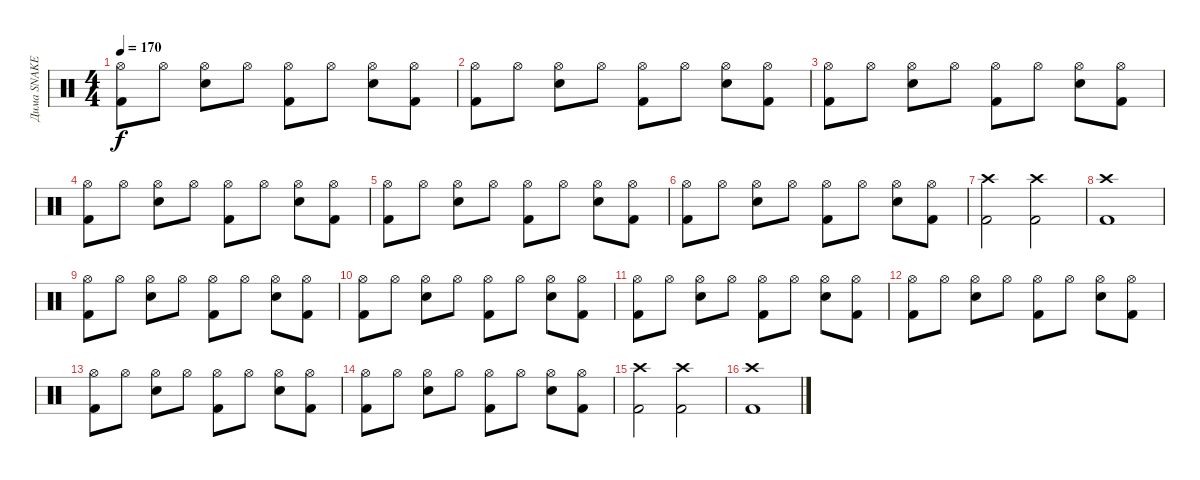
\track ("Дима SNAKE" "Дима SNAKE") {instrument percussion}
\staff {score}
\articulation defaults
\ts (4 4)
\tempo 170
\clef neutral
\ks c
("Hi-Hat (open)" "Kick (hit) 2").8{dy f} "Hi-Hat (open)".8 ("Hi-Hat (open)" "Snare (hit) 2").8 "Hi-Hat (open)".8 ("Hi-Hat (open)" "Kick (hit) 2").8 "Hi-Hat (open)".8 ("Hi-Hat (open)" "Snare (hit) 2").8 ("Hi-Hat (open)" "Kick (hit) 2").8 |
("Hi-Hat (open)" "Kick (hit) 2").8 "Hi-Hat (open)".8 ("Hi-Hat (open)" "Snare (hit) 2").8 "Hi-Hat (open)".8 ("Hi-Hat (open)" "Kick (hit) 2").8 "Hi-Hat (open)".8 ("Hi-Hat (open)" "Snare (hit) 2").8 ("Hi-Hat (open)" "Kick (hit) 2").8 |
("Hi-Hat (open)" "Kick (hit) 2").8 "Hi-Hat (open)".8 ("Hi-Hat (open)" "Snare (hit) 2").8 "Hi-Hat (open)".8 ("Hi-Hat (open)" "Kick (hit) 2").8 "Hi-Hat (open)".8 ("Hi-Hat (open)" "Snare (hit) 2").8 ("Hi-Hat (open)" "Kick (hit) 2").8 |
("Hi-Hat (open)" "Kick (hit) 2").8 "Hi-Hat (open)".8 ("Hi-Hat (open)" "Snare (hit) 2").8 "Hi-Hat (open)".8 ("Hi-Hat (open)" "Kick (hit) 2").8 "Hi-Hat (open)".8 ("Hi-Hat (open)" "Snare (hit) 2").8 ("Hi-Hat (open)" "Kick (hit) 2").8 |
("Hi-Hat (open)" "Kick (hit) 2").8 "Hi-Hat (open)".8 ("Hi-Hat (open)" "Snare (hit) 2").8 "Hi-Hat (open)".8 ("Hi-Hat (open)" "Kick (hit) 2").8 "Hi-Hat (open)".8 ("Hi-Hat (open)" "Snare (hit) 2").8 ("Hi-Hat (open)" "Kick (hit) 2").8 |
("Hi-Hat (open)" "Kick (hit) 2").8 "Hi-Hat (open)".8 ("Hi-Hat (open)" "Snare (hit) 2").8 "Hi-Hat (open)".8 ("Hi-Hat (open)" "Kick (hit) 2").8 "Hi-Hat (open)".8 ("Hi-Hat (open)" "Snare (hit) 2").8 ("Hi-Hat (open)" "Kick (hit) 2").8 |
("Crash high (hit)" "Kick (hit) 2").2 ("Crash high (hit)" "Kick (hit) 2").2 |
("Crash high (hit)" "Kick (hit) 2").1 |
("Hi-Hat (open)" "Kick (hit) 2").8 "Hi-Hat (open)".8 ("Hi-Hat (open)" "Snare (hit) 2").8 "Hi-Hat (open)".8 ("Hi-Hat (open)" "Kick (hit) 2").8 "Hi-Hat (open)".8 ("Hi-Hat (open)" "Snare (hit) 2").8 ("Hi-Hat (open)" "Kick (hit) 2").8 |
("Hi-Hat (open)" "Kick (hit) 2").8 "Hi-Hat (open)".8 ("Hi-Hat (open)" "Snare (hit) 2").8 "Hi-Hat (open)".8 ("Hi-Hat (open)" "Kick (hit) 2").8 "Hi-Hat (open)".8 ("Hi-Hat (open)" "Snare (hit) 2").8 ("Hi-Hat (open)" "Kick (hit) 2").8 |
("Hi-Hat (open)" "Kick (hit) 2").8 "Hi-Hat (open)".8 ("Hi-Hat (open)" "Snare (hit) 2").8 "Hi-Hat (open)".8 ("Hi-Hat (open)" "Kick (hit) 2").8 "Hi-Hat (open)".8 ("Hi-Hat (open)" "Snare (hit) 2").8 ("Hi-Hat (open)" "Kick (hit) 2").8 |
("Hi-Hat (open)" "Kick (hit) 2").8 "Hi-Hat (open)".8 ("Hi-Hat (open)" "Snare (hit) 2").8 "Hi-Hat (open)".8 ("Hi-Hat (open)" "Kick (hit) 2").8 "Hi-Hat (open)".8 ("Hi-Hat (open)" "Snare (hit) 2").8 ("Hi-Hat (open)" "Kick (hit) 2").8 |
("Hi-Hat (open)" "Kick (hit) 2").8 "Hi-Hat (open)".8 ("Hi-Hat (open)" "Snare (hit) 2").8 "Hi-Hat (open)".8 ("Hi-Hat (open)" "Kick (hit) 2").8 "Hi-Hat (open)".8 ("Hi-Hat (open)" "Snare (hit) 2").8 ("Hi-Hat (open)" "Kick (hit) 2").8 |
("Hi-Hat (open)" "Kick (hit) 2").8 "Hi-Hat (open)".8 ("Hi-Hat (open)" "Snare (hit) 2").8 "Hi-Hat (open)".8 ("Hi-Hat (open)" "Kick (hit) 2").8 "Hi-Hat (open)".8 ("Hi-Hat (open)" "Snare (hit) 2").8 ("Hi-Hat (open)" "Kick (hit) 2").8 |
("Crash high (hit)" "Kick (hit) 2").2 ("Crash high (hit)" "Kick (hit) 2").2 |
("Crash high (hit)" "Kick (hit) 2").1
